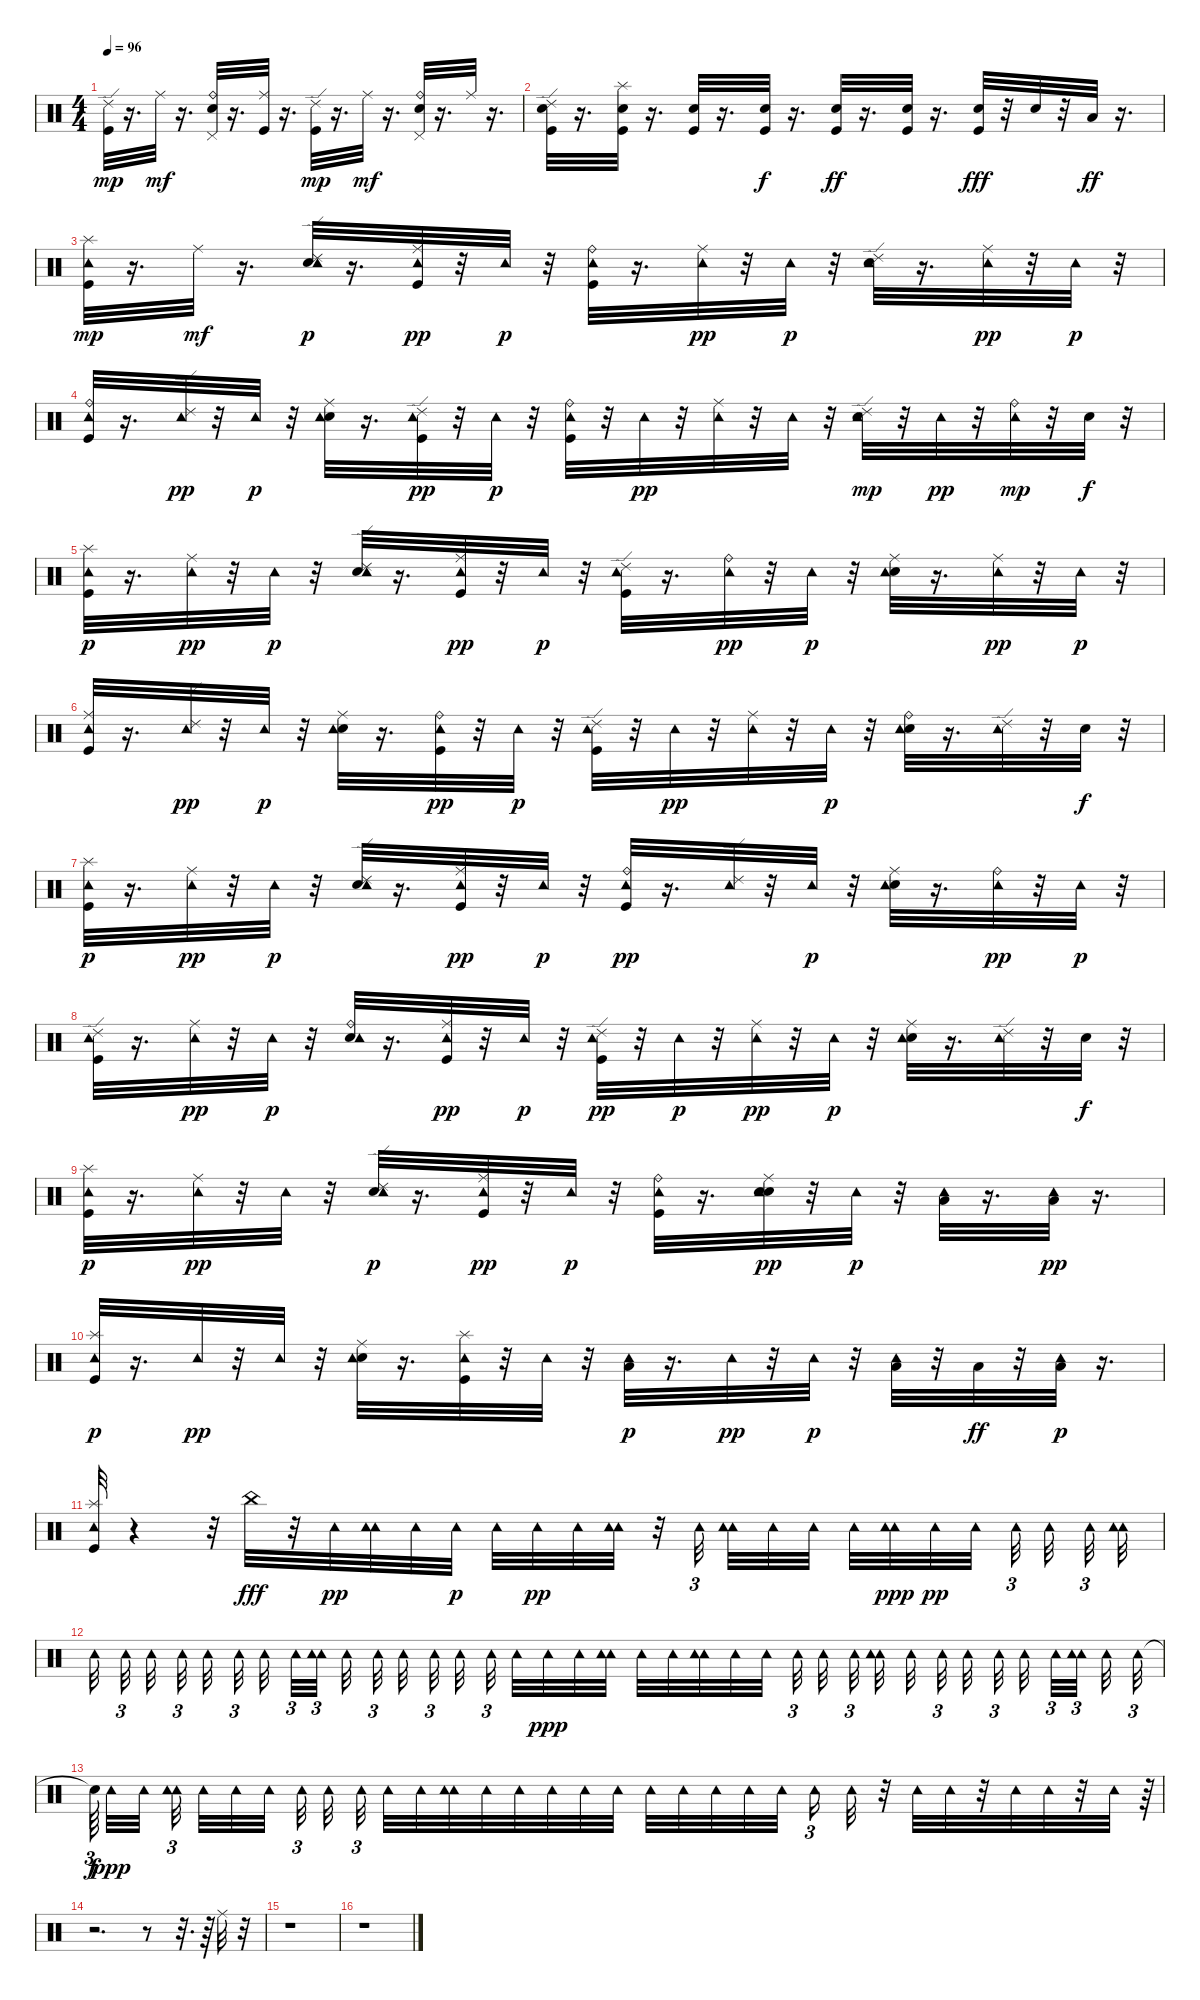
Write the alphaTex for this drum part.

\track "" {instrument percussion}
\staff {score}
\articulation defaults
\ts (4 4)
\tempo 96
\clef neutral
\ks c
("Kick (hit)" "Ride (edge) 2").32{dy mp} r.16{d} "Ride (middle)".32{dy mf} r.16{d} ("Electric Snare (hit)" "Ride (bell)" "Pedal Hi-Hat (hit)").32 r.16{d} ("Kick (hit)" "Ride (middle)").32 r.16{d} ("Kick (hit)" "Ride (edge) 2").32{dy mp} r.16{d} "Ride (middle)".32{dy mf} r.16{d} ("Electric Snare (hit)" "Ride (bell)" "Pedal Hi-Hat (hit)").32 r.16{d} "Ride (middle)".32 r.16{d} |
("Electric Snare (hit)" "Kick (hit)" "Ride (edge) 2").32 r.16{d} ("Electric Snare (hit)" "Kick (hit)" "Splash (hit)").32 r.16{d} ("Kick (hit)" "Electric Snare (hit)").32 r.16{d} ("Electric Snare (hit)" "Kick (hit)").32{dy f} r.16{d} ("Kick (hit)" "Electric Snare (hit)").32{dy ff} r.16{d} ("Electric Snare (hit)" "Kick (hit)").32 r.16{d} ("Electric Snare (hit)" "Kick (hit)").32{dy fff} r.32 "Electric Snare (hit)".32 r.32 "Low Floor Tom (hit)".32{dy ff} r.16{d} |
("Kick (hit)" "Splash (hit)" "Tambourine (hit)").32{dy mp} r.16{d} "Ride (middle)".32{dy mf} r.16{d} ("Electric Snare (hit)" "Ride (edge) 2" "Tambourine (hit)").32{dy p} r.16{d} ("Kick (hit)" "Ride (middle)" "Tambourine (hit)").32{dy pp} r.32 "Tambourine (hit)".32{dy p} r.32 ("Kick (hit)" "Ride (bell)" "Tambourine (hit)").32 r.16{d} ("Ride (middle)" "Tambourine (hit)").32{dy pp} r.32 "Tambourine (hit)".32{dy p} r.32 ("Electric Snare (hit)" "Ride (edge) 2" "Tambourine (hit)").32 r.16{d} ("Ride (middle)" "Tambourine (hit)").32{dy pp} r.32 "Tambourine (hit)".32{dy p} r.32 |
("Kick (hit)" "Ride (bell)" "Tambourine (hit)").32 r.16{d} ("Ride (edge) 2" "Tambourine (hit)").32{dy pp} r.32 "Tambourine (hit)".32{dy p} r.32 ("Electric Snare (hit)" "Ride (middle)" "Tambourine (hit)").32 r.16{d} ("Kick (hit)" "Ride (edge) 2" "Tambourine (hit)").32{dy pp} r.32 "Tambourine (hit)".32{dy p} r.32 ("Kick (hit)" "Ride (bell)" "Tambourine (hit)").32 r.32 "Tambourine (hit)".32{dy pp} r.32 ("Ride (middle)" "Tambourine (hit)").32 r.32 "Tambourine (hit)".32 r.32 ("Electric Snare (hit)" "Ride (edge) 2" "Tambourine (hit)").32{dy mp} r.32 "Tambourine (hit)".32{dy pp} r.32 ("Ride (bell)" "Tambourine (hit)").32{dy mp} r.32 "Electric Snare (hit)".32{dy f} r.32 |
("Kick (hit)" "Splash (hit)" "Tambourine (hit)").32{dy p} r.16{d} ("Ride (middle)" "Tambourine (hit)").32{dy pp} r.32 "Tambourine (hit)".32{dy p} r.32 ("Electric Snare (hit)" "Ride (edge) 2" "Tambourine (hit)").32 r.16{d} ("Kick (hit)" "Ride (middle)" "Tambourine (hit)").32{dy pp} r.32 "Tambourine (hit)".32{dy p} r.32 ("Kick (hit)" "Ride (edge) 2" "Tambourine (hit)").32 r.16{d} ("Ride (bell)" "Tambourine (hit)").32{dy pp} r.32 "Tambourine (hit)".32{dy p} r.32 ("Electric Snare (hit)" "Ride (middle)" "Tambourine (hit)").32 r.16{d} ("Ride (middle)" "Tambourine (hit)").32{dy pp} r.32 "Tambourine (hit)".32{dy p} r.32 |
("Kick (hit)" "Ride (middle)" "Tambourine (hit)").32 r.16{d} ("Ride (edge) 2" "Tambourine (hit)").32{dy pp} r.32 "Tambourine (hit)".32{dy p} r.32 ("Electric Snare (hit)" "Ride (middle)" "Tambourine (hit)").32 r.16{d} ("Kick (hit)" "Ride (bell)" "Tambourine (hit)").32{dy pp} r.32 "Tambourine (hit)".32{dy p} r.32 ("Kick (hit)" "Ride (edge) 2" "Tambourine (hit)").32 r.32 "Tambourine (hit)".32{dy pp} r.32 ("Ride (middle)" "Tambourine (hit)").32 r.32 "Tambourine (hit)".32{dy p} r.32 ("Electric Snare (hit)" "Ride (bell)" "Tambourine (hit)").32 r.16{d} ("Ride (edge) 2" "Tambourine (hit)").32 r.32 "Electric Snare (hit)".32{dy f} r.32 |
("Kick (hit)" "Splash (hit)" "Tambourine (hit)").32{dy p} r.16{d} ("Ride (middle)" "Tambourine (hit)").32{dy pp} r.32 "Tambourine (hit)".32{dy p} r.32 ("Electric Snare (hit)" "Ride (edge) 2" "Tambourine (hit)").32 r.16{d} ("Kick (hit)" "Ride (middle)" "Tambourine (hit)").32{dy pp} r.32 "Tambourine (hit)".32{dy p} r.32 ("Kick (hit)" "Ride (bell)" "Tambourine (hit)").32{dy pp} r.16{d} ("Ride (edge) 2" "Tambourine (hit)").32 r.32 "Tambourine (hit)".32{dy p} r.32 ("Electric Snare (hit)" "Ride (middle)" "Tambourine (hit)").32 r.16{d} ("Ride (bell)" "Tambourine (hit)").32{dy pp} r.32 "Tambourine (hit)".32{dy p} r.32 |
("Kick (hit)" "Ride (edge) 2" "Tambourine (hit)").32 r.16{d} ("Ride (middle)" "Tambourine (hit)").32{dy pp} r.32 "Tambourine (hit)".32{dy p} r.32 ("Electric Snare (hit)" "Ride (bell)" "Tambourine (hit)").32 r.16{d} ("Kick (hit)" "Ride (middle)" "Tambourine (hit)").32{dy pp} r.32 "Tambourine (hit)".32{dy p} r.32 ("Kick (hit)" "Ride (edge) 2" "Tambourine (hit)").32{dy pp} r.32 "Tambourine (hit)".32{dy p} r.32 ("Ride (middle)" "Tambourine (hit)").32{dy pp} r.32 "Tambourine (hit)".32{dy p} r.32 ("Electric Snare (hit)" "Ride (middle)" "Tambourine (hit)").32 r.16{d} ("Ride (edge) 2" "Tambourine (hit)").32 r.32 "Electric Snare (hit)".32{dy f} r.32 |
("Kick (hit)" "Splash (hit)" "Tambourine (hit)").32{dy p} r.16{d} ("Ride (middle)" "Tambourine (hit)").32{dy pp} r.32 "Tambourine (hit)".32 r.32 ("Electric Snare (hit)" "Ride (edge) 2" "Tambourine (hit)").32{dy p} r.16{d} ("Kick (hit)" "Ride (middle)" "Tambourine (hit)").32{dy pp} r.32 "Tambourine (hit)".32{dy p} r.32 ("Kick (hit)" "Ride (bell)" "Tambourine (hit)").32 r.16{d} ("Snare (hit) 2" "Electric Snare (hit)" "Ride (middle)" "Tambourine (hit)").32{dy pp} r.32 "Tambourine (hit)".32{dy p} r.32 ("Low Tom (hit)" "Tambourine (hit)").32 r.16{d} ("Low Floor Tom (hit)" "Tambourine (hit)").32{dy pp} r.16{d} |
("Kick (hit)" "Splash (hit)" "Tambourine (hit)").32{dy p} r.16{d} "Tambourine (hit)".32{dy pp} r.32 "Tambourine (hit)".32 r.32 ("Electric Snare (hit)" "Ride (middle)" "Tambourine (hit)").32 r.16{d} ("Kick (hit)" "Splash (hit)" "Tambourine (hit)").32 r.32 "Tambourine (hit)".32 r.32 ("Low Tom (hit)" "Tambourine (hit)").32{dy p} r.16{d} "Tambourine (hit)".32{dy pp} r.32 "Tambourine (hit)".32{dy p} r.32 ("Low Tom (hit)" "Tambourine (hit)").32 r.32 "Low Floor Tom (hit)".32{dy ff} r.32 ("Low Floor Tom (hit)" "Tambourine (hit)").32{dy p} r.16{d} |
("Kick (hit)" "Splash (hit)" "Tambourine (hit)").32 r.4 r.32 "China (hit)".32{dy fff} r.32 "Tambourine (hit)".32{dy pp} ("Tambourine (hit)" "Tambourine (hit)").32 "Tambourine (hit)".32 "Tambourine (hit)".32{dy p} "Tambourine (hit)".32 "Tambourine (hit)".32{dy pp} "Tambourine (hit)".32 ("Tambourine (hit)" "Tambourine (hit)").32 r.32 "Tambourine (hit)".32{tu (3 2)} ("Tambourine (hit)" "Tambourine (hit)").32 "Tambourine (hit)".32 "Tambourine (hit)".32 "Tambourine (hit)".32 ("Tambourine (hit)" "Tambourine (hit)").32{dy ppp} "Tambourine (hit)".32{dy pp} "Tambourine (hit)".32 "Tambourine (hit)".32{tu (3 2)} "Tambourine (hit)".32 "Tambourine (hit)".32{tu (3 2)} ("Tambourine (hit)" "Tambourine (hit)").32 |
"Tambourine (hit)".32 "Tambourine (hit)".32{tu (3 2)} "Tambourine (hit)".32 "Tambourine (hit)".32{tu (3 2)} "Tambourine (hit)".32 "Tambourine (hit)".32{tu (3 2)} "Tambourine (hit)".32 "Tambourine (hit)".32{tu (3 2)} ("Tambourine (hit)" "Tambourine (hit)").32{tu (3 2)} "Tambourine (hit)".32 "Tambourine (hit)".32{tu (3 2)} "Tambourine (hit)".32 "Tambourine (hit)".32{tu (3 2)} "Tambourine (hit)".32 "Tambourine (hit)".32{tu (3 2)} "Tambourine (hit)".32 "Tambourine (hit)".32{dy ppp} "Tambourine (hit)".32 ("Tambourine (hit)" "Tambourine (hit)").32 "Tambourine (hit)".32 "Tambourine (hit)".32 ("Tambourine (hit)" "Tambourine (hit)").32 "Tambourine (hit)".32 "Tambourine (hit)".32 "Tambourine (hit)".32{tu (3 2)} "Tambourine (hit)".32 "Tambourine (hit)".32{tu (3 2)} ("Tambourine (hit)" "Tambourine (hit)").32 "Tambourine (hit)".32 "Tambourine (hit)".32{tu (3 2)} "Tambourine (hit)".32 "Tambourine (hit)".32{tu (3 2)} "Tambourine (hit)".32 "Tambourine (hit)".32{tu (3 2)} ("Tambourine (hit)" "Tambourine (hit)").32{tu (3 2)} "Tambourine (hit)".32 "Tambourine (hit)".32{tu (3 2)} |
"Snare (hit)"{t}.64{tu (3 2) dy f} "Tambourine (hit)".32{dy ppp} "Tambourine (hit)".32 ("Tambourine (hit)" "Tambourine (hit)").32{tu (3 2)} "Tambourine (hit)".32 "Tambourine (hit)".32 "Tambourine (hit)".32 "Tambourine (hit)".32{tu (3 2)} "Tambourine (hit)".32 "Tambourine (hit)".32{tu (3 2)} "Tambourine (hit)".32 "Tambourine (hit)".32 ("Tambourine (hit)" "Tambourine (hit)").32 "Tambourine (hit)".32 "Tambourine (hit)".32 "Tambourine (hit)".32 "Tambourine (hit)".32 "Tambourine (hit)".32 "Tambourine (hit)".32 "Tambourine (hit)".32 "Tambourine (hit)".32 "Tambourine (hit)".32 "Tambourine (hit)".32 "Tambourine (hit)".16{tu (3 2)} "Tambourine (hit)".32 r.32 "Tambourine (hit)".32 "Tambourine (hit)".32 r.32 "Tambourine (hit)".32 "Tambourine (hit)".32 r.32 "Tambourine (hit)".32 r.64{tu (3 2)} |
r.2{d} r.8 r.32{d} r.64 "Ride (middle)".32 r.32 |
r.1 |
r.1
